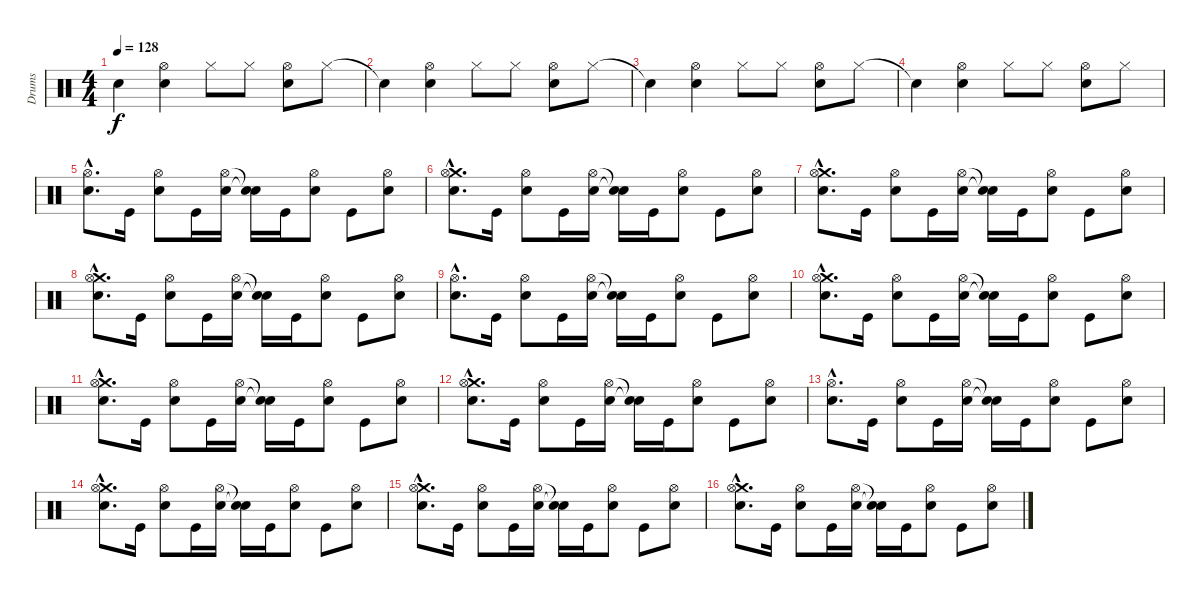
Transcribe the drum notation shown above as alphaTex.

\track ("Drums" "Drums") {instrument percussion}
\staff {score}
\articulation defaults
\ts (4 4)
\tempo 128
\clef neutral
\ks c "Snare (hit)"{t}.4{dy f}
("Snare (hit) 2" "Hi-Hat (open)").4 "Hi-Hat (closed)".8 "Hi-Hat (closed)".8 ("Snare (hit) 2" "Hi-Hat (open)").8 "Hi-Hat (closed)".8 |
"Snare (hit)"{t}.4 ("Snare (hit) 2" "Hi-Hat (open)").4 "Hi-Hat (closed)".8 "Hi-Hat (closed)".8 ("Snare (hit) 2" "Hi-Hat (open)").8 "Hi-Hat (closed)".8 |
"Snare (hit)"{t}.4 ("Snare (hit) 2" "Hi-Hat (open)").4 "Hi-Hat (closed)".8 "Hi-Hat (closed)".8 ("Snare (hit) 2" "Hi-Hat (open)").8 "Hi-Hat (closed)".8 |
"Snare (hit)"{t}.4 ("Snare (hit) 2" "Hi-Hat (open)").4 "Hi-Hat (closed)".8 "Hi-Hat (closed)".8 ("Snare (hit) 2" "Hi-Hat (open)").8 "Hi-Hat (closed)".8 |
("Hi-Hat (open)"{hac} "Snare (hit) 2"{hac}).8{d} "Kick (hit)".16 ("Hi-Hat (open)" "Snare (hit) 2").8 "Kick (hit)".16 ("Hi-Hat (open)" "Snare (hit) 2").16 ("Snare (hit)"{t} "Snare (hit)"{t}).16 "Kick (hit)".16 ("Hi-Hat (open)" "Snare (hit) 2").8 "Kick (hit)".8 ("Hi-Hat (open)" "Snare (hit) 2").8 |
("Crash medium (hit)"{hac} "Hi-Hat (open)"{hac} "Snare (hit) 2"{hac}).8{d} "Kick (hit)".16 ("Hi-Hat (open)" "Snare (hit) 2").8 "Kick (hit)".16 ("Hi-Hat (open)" "Snare (hit) 2").16 ("Snare (hit)"{t} "Snare (hit)"{t}).16 "Kick (hit)".16 ("Hi-Hat (open)" "Snare (hit) 2").8 "Kick (hit)".8 ("Hi-Hat (open)" "Snare (hit) 2").8 |
("Crash medium (hit)"{hac} "Hi-Hat (open)"{hac} "Snare (hit) 2"{hac}).8{d} "Kick (hit)".16 ("Hi-Hat (open)" "Snare (hit) 2").8 "Kick (hit)".16 ("Hi-Hat (open)" "Snare (hit) 2").16 ("Snare (hit)"{t} "Snare (hit)"{t}).16 "Kick (hit)".16 ("Hi-Hat (open)" "Snare (hit) 2").8 "Kick (hit)".8 ("Hi-Hat (open)" "Snare (hit) 2").8 |
("Crash medium (hit)"{hac} "Hi-Hat (open)"{hac} "Snare (hit) 2"{hac}).8{d} "Kick (hit)".16 ("Hi-Hat (open)" "Snare (hit) 2").8 "Kick (hit)".16 ("Hi-Hat (open)" "Snare (hit) 2").16 ("Snare (hit)"{t} "Snare (hit)"{t}).16 "Kick (hit)".16 ("Hi-Hat (open)" "Snare (hit) 2").8 "Kick (hit)".8 ("Hi-Hat (open)" "Snare (hit) 2").8 |
("Hi-Hat (open)"{hac} "Snare (hit) 2"{hac}).8{d} "Kick (hit)".16 ("Hi-Hat (open)" "Snare (hit) 2").8 "Kick (hit)".16 ("Hi-Hat (open)" "Snare (hit) 2").16 ("Snare (hit)"{t} "Snare (hit)"{t}).16 "Kick (hit)".16 ("Hi-Hat (open)" "Snare (hit) 2").8 "Kick (hit)".8 ("Hi-Hat (open)" "Snare (hit) 2").8 |
("Crash medium (hit)"{hac} "Hi-Hat (open)"{hac} "Snare (hit) 2"{hac}).8{d} "Kick (hit)".16 ("Hi-Hat (open)" "Snare (hit) 2").8 "Kick (hit)".16 ("Hi-Hat (open)" "Snare (hit) 2").16 ("Snare (hit)"{t} "Snare (hit)"{t}).16 "Kick (hit)".16 ("Hi-Hat (open)" "Snare (hit) 2").8 "Kick (hit)".8 ("Hi-Hat (open)" "Snare (hit) 2").8 |
("Crash medium (hit)"{hac} "Hi-Hat (open)"{hac} "Snare (hit) 2"{hac}).8{d} "Kick (hit)".16 ("Hi-Hat (open)" "Snare (hit) 2").8 "Kick (hit)".16 ("Hi-Hat (open)" "Snare (hit) 2").16 ("Snare (hit)"{t} "Snare (hit)"{t}).16 "Kick (hit)".16 ("Hi-Hat (open)" "Snare (hit) 2").8 "Kick (hit)".8 ("Hi-Hat (open)" "Snare (hit) 2").8 |
("Crash medium (hit)"{hac} "Hi-Hat (open)"{hac} "Snare (hit) 2"{hac}).8{d} "Kick (hit)".16 ("Hi-Hat (open)" "Snare (hit) 2").8 "Kick (hit)".16 ("Hi-Hat (open)" "Snare (hit) 2").16 ("Snare (hit)"{t} "Snare (hit)"{t}).16 "Kick (hit)".16 ("Hi-Hat (open)" "Snare (hit) 2").8 "Kick (hit)".8 ("Hi-Hat (open)" "Snare (hit) 2").8 |
("Hi-Hat (open)"{hac} "Snare (hit) 2"{hac}).8{d} "Kick (hit)".16 ("Hi-Hat (open)" "Snare (hit) 2").8 "Kick (hit)".16 ("Hi-Hat (open)" "Snare (hit) 2").16 ("Snare (hit)"{t} "Snare (hit)"{t}).16 "Kick (hit)".16 ("Hi-Hat (open)" "Snare (hit) 2").8 "Kick (hit)".8 ("Hi-Hat (open)" "Snare (hit) 2").8 |
("Crash medium (hit)"{hac} "Hi-Hat (open)"{hac} "Snare (hit) 2"{hac}).8{d} "Kick (hit)".16 ("Hi-Hat (open)" "Snare (hit) 2").8 "Kick (hit)".16 ("Hi-Hat (open)" "Snare (hit) 2").16 ("Snare (hit)"{t} "Snare (hit)"{t}).16 "Kick (hit)".16 ("Hi-Hat (open)" "Snare (hit) 2").8 "Kick (hit)".8 ("Hi-Hat (open)" "Snare (hit) 2").8 |
("Crash medium (hit)"{hac} "Hi-Hat (open)"{hac} "Snare (hit) 2"{hac}).8{d} "Kick (hit)".16 ("Hi-Hat (open)" "Snare (hit) 2").8 "Kick (hit)".16 ("Hi-Hat (open)" "Snare (hit) 2").16 ("Snare (hit)"{t} "Snare (hit)"{t}).16 "Kick (hit)".16 ("Hi-Hat (open)" "Snare (hit) 2").8 "Kick (hit)".8 ("Hi-Hat (open)" "Snare (hit) 2").8 |
("Crash medium (hit)"{hac} "Hi-Hat (open)"{hac} "Snare (hit) 2"{hac}).8{d} "Kick (hit)".16 ("Hi-Hat (open)" "Snare (hit) 2").8 "Kick (hit)".16 ("Hi-Hat (open)" "Snare (hit) 2").16 ("Snare (hit)"{t} "Snare (hit)"{t}).16 "Kick (hit)".16 ("Hi-Hat (open)" "Snare (hit) 2").8 "Kick (hit)".8 ("Hi-Hat (open)" "Snare (hit) 2").8
